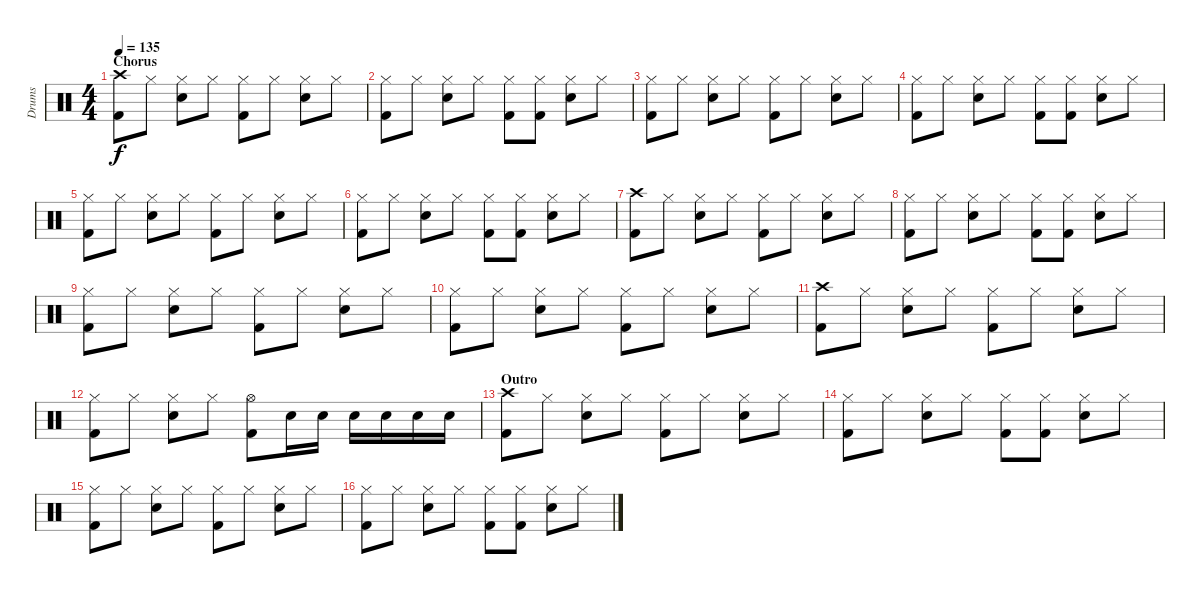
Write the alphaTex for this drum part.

\track ("Drums" "Drums") {instrument percussion}
\staff {score}
\articulation defaults
\ts (4 4)
\section ("" "Chorus")
\tempo 135
\clef neutral
\ks c
("Crash high (hit)" "Kick (hit) 2").8{dy f} "Hi-Hat (closed)".8 ("Hi-Hat (closed)" "Electric Snare (hit)").8 "Hi-Hat (closed)".8 ("Hi-Hat (closed)" "Kick (hit) 2").8 "Hi-Hat (closed)".8 ("Hi-Hat (closed)" "Electric Snare (hit)").8 "Hi-Hat (closed)".8 |
("Hi-Hat (closed)" "Kick (hit) 2").8 "Hi-Hat (closed)".8 ("Hi-Hat (closed)" "Electric Snare (hit)").8 "Hi-Hat (closed)".8 ("Hi-Hat (closed)" "Kick (hit) 2").8 ("Hi-Hat (closed)" "Kick (hit) 2").8 ("Hi-Hat (closed)" "Electric Snare (hit)").8 "Hi-Hat (closed)".8 |
("Hi-Hat (closed)" "Kick (hit) 2").8 "Hi-Hat (closed)".8 ("Hi-Hat (closed)" "Electric Snare (hit)").8 "Hi-Hat (closed)".8 ("Hi-Hat (closed)" "Kick (hit) 2").8 "Hi-Hat (closed)".8 ("Hi-Hat (closed)" "Electric Snare (hit)").8 "Hi-Hat (closed)".8 |
("Hi-Hat (closed)" "Kick (hit) 2").8 "Hi-Hat (closed)".8 ("Hi-Hat (closed)" "Electric Snare (hit)").8 "Hi-Hat (closed)".8 ("Hi-Hat (closed)" "Kick (hit) 2").8 ("Hi-Hat (closed)" "Kick (hit) 2").8 ("Hi-Hat (closed)" "Electric Snare (hit)").8 "Hi-Hat (closed)".8 |
("Hi-Hat (closed)" "Kick (hit) 2").8 "Hi-Hat (closed)".8 ("Hi-Hat (closed)" "Electric Snare (hit)").8 "Hi-Hat (closed)".8 ("Hi-Hat (closed)" "Kick (hit) 2").8 "Hi-Hat (closed)".8 ("Hi-Hat (closed)" "Electric Snare (hit)").8 "Hi-Hat (closed)".8 |
("Hi-Hat (closed)" "Kick (hit) 2").8 "Hi-Hat (closed)".8 ("Hi-Hat (closed)" "Electric Snare (hit)").8 "Hi-Hat (closed)".8 ("Hi-Hat (closed)" "Kick (hit) 2").8 ("Hi-Hat (closed)" "Kick (hit) 2").8 ("Hi-Hat (closed)" "Electric Snare (hit)").8 "Hi-Hat (closed)".8 |
("Crash high (hit)" "Kick (hit) 2").8 "Hi-Hat (closed)".8 ("Hi-Hat (closed)" "Electric Snare (hit)").8 "Hi-Hat (closed)".8 ("Hi-Hat (closed)" "Kick (hit) 2").8 "Hi-Hat (closed)".8 ("Hi-Hat (closed)" "Electric Snare (hit)").8 "Hi-Hat (closed)".8 |
("Hi-Hat (closed)" "Kick (hit) 2").8 "Hi-Hat (closed)".8 ("Hi-Hat (closed)" "Electric Snare (hit)").8 "Hi-Hat (closed)".8 ("Hi-Hat (closed)" "Kick (hit) 2").8 ("Hi-Hat (closed)" "Kick (hit) 2").8 ("Hi-Hat (closed)" "Electric Snare (hit)").8 "Hi-Hat (closed)".8 |
("Hi-Hat (closed)" "Kick (hit) 2").8 "Hi-Hat (closed)".8 ("Hi-Hat (closed)" "Electric Snare (hit)").8 "Hi-Hat (closed)".8 ("Hi-Hat (closed)" "Kick (hit) 2").8 "Hi-Hat (closed)".8 ("Hi-Hat (closed)" "Electric Snare (hit)").8 "Hi-Hat (closed)".8 |
("Hi-Hat (closed)" "Kick (hit) 2").8 "Hi-Hat (closed)".8 ("Hi-Hat (closed)" "Electric Snare (hit)").8 "Hi-Hat (closed)".8 ("Hi-Hat (closed)" "Kick (hit) 2").8 "Hi-Hat (closed)".8 ("Hi-Hat (closed)" "Electric Snare (hit)").8 "Hi-Hat (closed)".8 |
("Crash high (hit)" "Kick (hit) 2").8 "Hi-Hat (closed)".8 ("Hi-Hat (closed)" "Electric Snare (hit)").8 "Hi-Hat (closed)".8 ("Hi-Hat (closed)" "Kick (hit) 2").8 "Hi-Hat (closed)".8 ("Hi-Hat (closed)" "Electric Snare (hit)").8 "Hi-Hat (closed)".8 |
("Hi-Hat (closed)" "Kick (hit) 2").8 "Hi-Hat (closed)".8 ("Hi-Hat (closed)" "Electric Snare (hit)").8 "Hi-Hat (closed)".8 ("Hi-Hat (open)" "Kick (hit) 2").8 "Electric Snare (hit)".16 "Electric Snare (hit)".16 "Electric Snare (hit)".16 "Electric Snare (hit)".16 "Electric Snare (hit)".16 "Electric Snare (hit)".16 |
\section ("" "Outro")
("Crash high (hit)" "Kick (hit) 2").8 "Hi-Hat (closed)".8 ("Hi-Hat (closed)" "Electric Snare (hit)").8 "Hi-Hat (closed)".8 ("Hi-Hat (closed)" "Kick (hit) 2").8 "Hi-Hat (closed)".8 ("Hi-Hat (closed)" "Electric Snare (hit)").8 "Hi-Hat (closed)".8 |
("Hi-Hat (closed)" "Kick (hit) 2").8 "Hi-Hat (closed)".8 ("Hi-Hat (closed)" "Electric Snare (hit)").8 "Hi-Hat (closed)".8 ("Hi-Hat (closed)" "Kick (hit) 2").8 ("Hi-Hat (closed)" "Kick (hit) 2").8 ("Hi-Hat (closed)" "Electric Snare (hit)").8 "Hi-Hat (closed)".8 |
("Hi-Hat (closed)" "Kick (hit) 2").8 "Hi-Hat (closed)".8 ("Hi-Hat (closed)" "Electric Snare (hit)").8 "Hi-Hat (closed)".8 ("Hi-Hat (closed)" "Kick (hit) 2").8 "Hi-Hat (closed)".8 ("Hi-Hat (closed)" "Electric Snare (hit)").8 "Hi-Hat (closed)".8 |
("Hi-Hat (closed)" "Kick (hit) 2").8 "Hi-Hat (closed)".8 ("Hi-Hat (closed)" "Electric Snare (hit)").8 "Hi-Hat (closed)".8 ("Hi-Hat (closed)" "Kick (hit) 2").8 ("Hi-Hat (closed)" "Kick (hit) 2").8 ("Hi-Hat (closed)" "Electric Snare (hit)").8 "Hi-Hat (closed)".8
